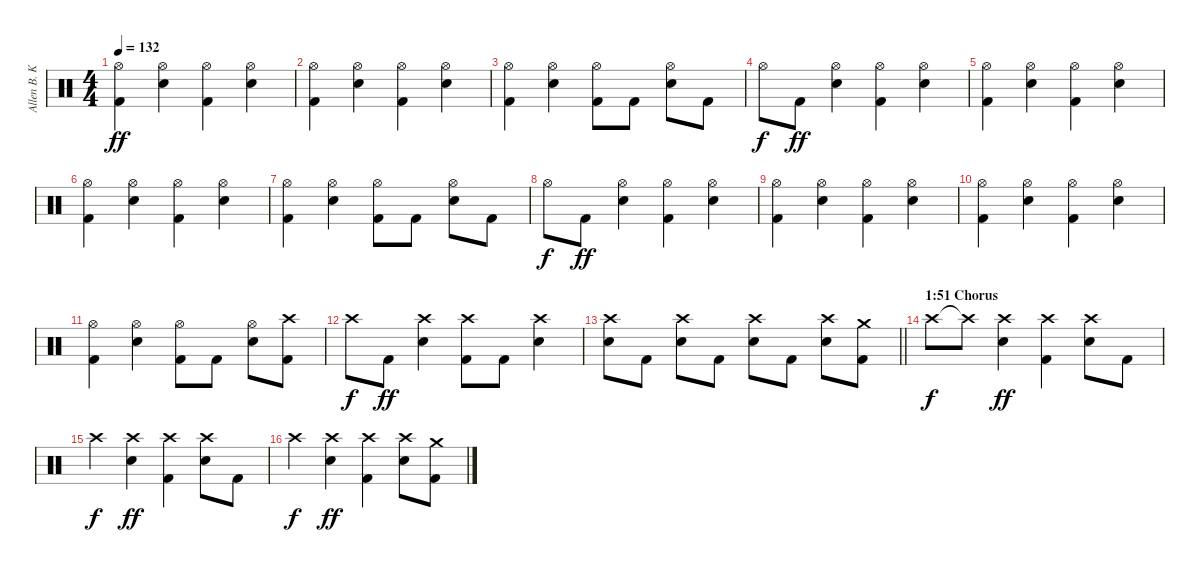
\track ("Allen B. Konstanz (Drums)" "Allen B. K") {instrument percussion}
\staff {score}
\articulation defaults
\ts (4 4)
\tempo 132
\clef neutral
\ks c
("Kick (hit) 2" "Hi-Hat (open)").4{dy ff} ("Electric Snare (hit)" "Hi-Hat (open)").4 ("Kick (hit) 2" "Hi-Hat (open)").4 ("Electric Snare (hit)" "Hi-Hat (open)").4 |
("Kick (hit) 2" "Hi-Hat (open)").4 ("Electric Snare (hit)" "Hi-Hat (open)").4 ("Kick (hit) 2" "Hi-Hat (open)").4 ("Electric Snare (hit)" "Hi-Hat (open)").4 |
("Kick (hit) 2" "Hi-Hat (open)").4 ("Electric Snare (hit)" "Hi-Hat (open)").4 ("Kick (hit) 2" "Hi-Hat (open)").8 "Kick (hit) 2".8 ("Electric Snare (hit)" "Hi-Hat (open)").8 "Kick (hit) 2".8 |
"Hi-Hat (open)".8{dy f} "Kick (hit) 2".8{dy ff} ("Electric Snare (hit)" "Hi-Hat (open)").4 ("Kick (hit) 2" "Hi-Hat (open)").4 ("Electric Snare (hit)" "Hi-Hat (open)").4 |
("Kick (hit) 2" "Hi-Hat (open)").4 ("Electric Snare (hit)" "Hi-Hat (open)").4 ("Kick (hit) 2" "Hi-Hat (open)").4 ("Electric Snare (hit)" "Hi-Hat (open)").4 |
("Kick (hit) 2" "Hi-Hat (open)").4 ("Electric Snare (hit)" "Hi-Hat (open)").4 ("Kick (hit) 2" "Hi-Hat (open)").4 ("Electric Snare (hit)" "Hi-Hat (open)").4 |
("Kick (hit) 2" "Hi-Hat (open)").4 ("Electric Snare (hit)" "Hi-Hat (open)").4 ("Kick (hit) 2" "Hi-Hat (open)").8 "Kick (hit) 2".8 ("Electric Snare (hit)" "Hi-Hat (open)").8 "Kick (hit) 2".8 |
"Hi-Hat (open)".8{dy f} "Kick (hit) 2".8{dy ff} ("Electric Snare (hit)" "Hi-Hat (open)").4 ("Kick (hit) 2" "Hi-Hat (open)").4 ("Electric Snare (hit)" "Hi-Hat (open)").4 |
("Kick (hit) 2" "Hi-Hat (open)").4 ("Electric Snare (hit)" "Hi-Hat (open)").4 ("Kick (hit) 2" "Hi-Hat (open)").4 ("Electric Snare (hit)" "Hi-Hat (open)").4 |
("Kick (hit) 2" "Hi-Hat (open)").4 ("Electric Snare (hit)" "Hi-Hat (open)").4 ("Kick (hit) 2" "Hi-Hat (open)").4 ("Electric Snare (hit)" "Hi-Hat (open)").4 |
("Kick (hit) 2" "Hi-Hat (open)").4 ("Electric Snare (hit)" "Hi-Hat (open)").4 ("Kick (hit) 2" "Hi-Hat (open)").8 "Kick (hit) 2".8 ("Electric Snare (hit)" "Hi-Hat (open)").8 ("Kick (hit) 2" "Crash high (hit)").8 |
"Crash high (hit)".8{dy f} "Kick (hit) 2".8{dy ff} ("Electric Snare (hit)" "Crash high (hit)").4 ("Kick (hit) 2" "Crash high (hit)").8 "Kick (hit) 2".8 ("Electric Snare (hit)" "Crash high (hit)").4 |
\barLineRight lightlight
("Electric Snare (hit)" "Crash high (hit)").8 "Kick (hit) 2".8 ("Electric Snare (hit)" "Crash high (hit)").8 "Kick (hit) 2".8 ("Electric Snare (hit)" "Crash high (hit)").8 "Kick (hit) 2".8 ("Electric Snare (hit)" "Crash high (hit)").8 ("Kick (hit) 2" "Crash medium (hit)").8 |
\section ("" "1:51 Chorus")
"Crash high (hit)".8{dy f} "Crash high (hit)"{t}.8 ("Electric Snare (hit)" "Crash high (hit)").4{dy ff} ("Kick (hit) 2" "Crash high (hit)").4 ("Electric Snare (hit)" "Crash high (hit)").8 "Kick (hit) 2".8 |
"Crash high (hit)".4{dy f} ("Electric Snare (hit)" "Crash high (hit)").4{dy ff} ("Kick (hit) 2" "Crash high (hit)").4 ("Electric Snare (hit)" "Crash high (hit)").8 "Kick (hit) 2".8 |
"Crash high (hit)".4{dy f} ("Electric Snare (hit)" "Crash high (hit)").4{dy ff} ("Kick (hit) 2" "Crash high (hit)").4 ("Electric Snare (hit)" "Crash high (hit)").8 ("Kick (hit) 2" "Crash medium (hit)").8
